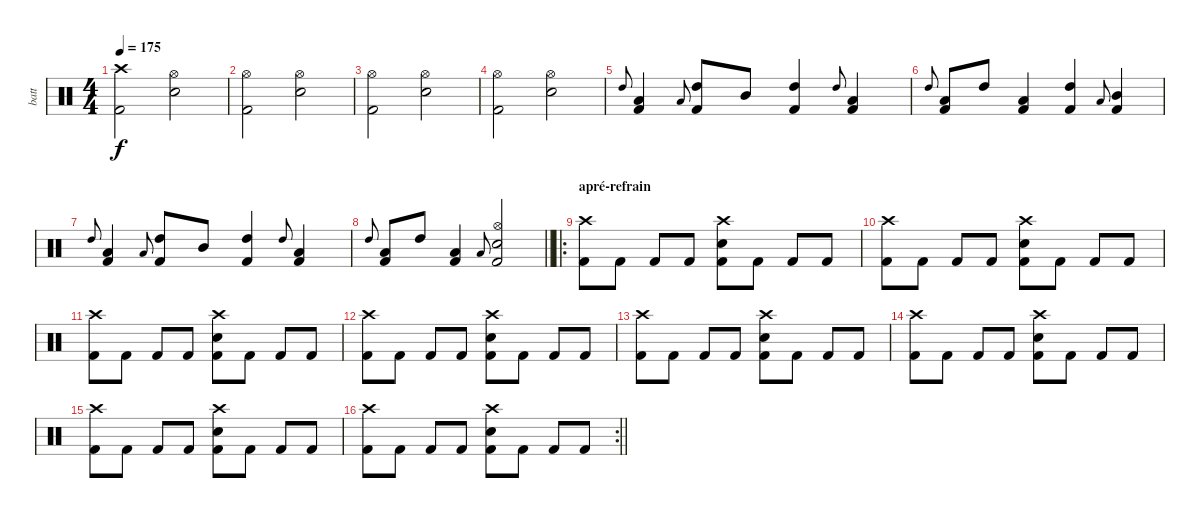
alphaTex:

\track ("batt" "batt") {instrument percussion}
\staff {score}
\articulation defaults
\ts (4 4)
\tempo 175
\clef neutral
\ks c
("Crash high (hit)" "Kick (hit) 2").2{dy f} ("Hi-Hat (open)" "Electric Snare (hit)").2 |
("Hi-Hat (open)" "Kick (hit) 2").2 ("Hi-Hat (open)" "Electric Snare (hit)").2 |
("Hi-Hat (open)" "Kick (hit) 2").2 ("Hi-Hat (open)" "Electric Snare (hit)").2 |
("Hi-Hat (open)" "Kick (hit) 2").2 ("Hi-Hat (open)" "Electric Snare (hit)").2 |
"High Tom (hit)".8{gr onbeat} ("Low Tom (hit)" "Kick (hit) 2").4 "Low Tom (hit)".8{gr onbeat} ("High Tom (hit)" "Kick (hit) 2").8 "Mid Tom (hit)".8 ("High Tom (hit)" "Kick (hit) 2").4 "High Tom (hit)".8{gr onbeat} ("Low Tom (hit)" "Kick (hit) 2").4 |
"High Tom (hit)".8{gr onbeat} ("Low Tom (hit)" "Kick (hit) 2").8 "High Tom (hit)".8 ("Low Tom (hit)" "Kick (hit) 2").4 ("High Tom (hit)" "Kick (hit) 2").4 "Low Tom (hit)".8{gr onbeat} ("Mid Tom (hit)" "Kick (hit) 2").4 |
"High Tom (hit)".8{gr onbeat} ("Low Tom (hit)" "Kick (hit) 2").4 "Low Tom (hit)".8{gr onbeat} ("High Tom (hit)" "Kick (hit) 2").8 "Mid Tom (hit)".8 ("High Tom (hit)" "Kick (hit) 2").4 "High Tom (hit)".8{gr onbeat} ("Low Tom (hit)" "Kick (hit) 2").4 |
\barLineRight lightlight "High Tom (hit)".8{gr onbeat}
("Low Tom (hit)" "Kick (hit) 2").8 "High Tom (hit)".8 ("Low Tom (hit)" "Kick (hit) 2").4 "Low Tom (hit)".8{gr onbeat} ("Hi-Hat (open)" "Electric Snare (hit)" "Kick (hit) 2").2 |
\ro
\section ("" "apré-refrain")
("Crash high (hit)" "Kick (hit) 2").8 "Kick (hit) 2".8 "Kick (hit) 2".8 "Kick (hit) 2".8 ("Crash high (hit)" "Electric Snare (hit)" "Kick (hit) 2").8 "Kick (hit) 2".8 "Kick (hit) 2".8 "Kick (hit) 2".8 |
("Crash high (hit)" "Kick (hit) 2").8 "Kick (hit) 2".8 "Kick (hit) 2".8 "Kick (hit) 2".8 ("Crash high (hit)" "Electric Snare (hit)" "Kick (hit) 2").8 "Kick (hit) 2".8 "Kick (hit) 2".8 "Kick (hit) 2".8 |
("Crash high (hit)" "Kick (hit) 2").8 "Kick (hit) 2".8 "Kick (hit) 2".8 "Kick (hit) 2".8 ("Crash high (hit)" "Electric Snare (hit)" "Kick (hit) 2").8 "Kick (hit) 2".8 "Kick (hit) 2".8 "Kick (hit) 2".8 |
("Crash high (hit)" "Kick (hit) 2").8 "Kick (hit) 2".8 "Kick (hit) 2".8 "Kick (hit) 2".8 ("Crash high (hit)" "Electric Snare (hit)" "Kick (hit) 2").8 "Kick (hit) 2".8 "Kick (hit) 2".8 "Kick (hit) 2".8 |
("Crash high (hit)" "Kick (hit) 2").8 "Kick (hit) 2".8 "Kick (hit) 2".8 "Kick (hit) 2".8 ("Crash high (hit)" "Electric Snare (hit)" "Kick (hit) 2").8 "Kick (hit) 2".8 "Kick (hit) 2".8 "Kick (hit) 2".8 |
("Crash high (hit)" "Kick (hit) 2").8 "Kick (hit) 2".8 "Kick (hit) 2".8 "Kick (hit) 2".8 ("Crash high (hit)" "Electric Snare (hit)" "Kick (hit) 2").8 "Kick (hit) 2".8 "Kick (hit) 2".8 "Kick (hit) 2".8 |
("Crash high (hit)" "Kick (hit) 2").8 "Kick (hit) 2".8 "Kick (hit) 2".8 "Kick (hit) 2".8 ("Crash high (hit)" "Electric Snare (hit)" "Kick (hit) 2").8 "Kick (hit) 2".8 "Kick (hit) 2".8 "Kick (hit) 2".8 |
\rc 2
\barLineRight lightlight
("Crash high (hit)" "Kick (hit) 2").8 "Kick (hit) 2".8 "Kick (hit) 2".8 "Kick (hit) 2".8 ("Crash high (hit)" "Electric Snare (hit)" "Kick (hit) 2").8 "Kick (hit) 2".8 "Kick (hit) 2".8 "Kick (hit) 2".8
